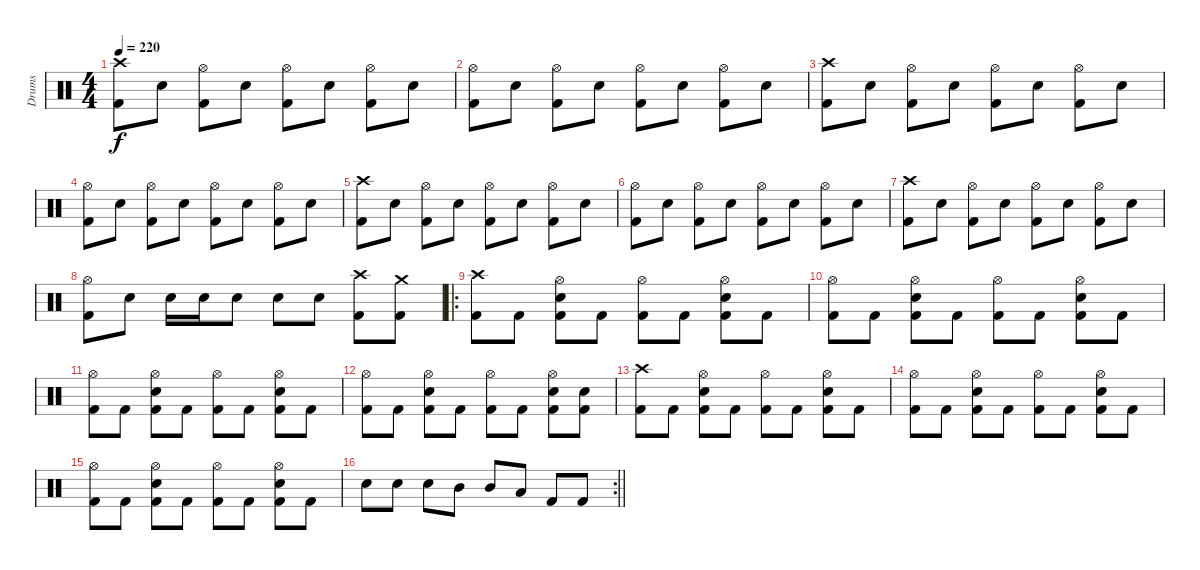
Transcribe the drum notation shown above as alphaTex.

\track ("Drums" "Drums") {instrument percussion}
\staff {score}
\articulation defaults
\ts (4 4)
\tempo 220
\clef neutral
\ks c
("Kick (hit) 2" "Crash high (hit)").8{dy f} "Electric Snare (hit)".8 ("Kick (hit) 2" "Hi-Hat (open)").8 "Electric Snare (hit)".8 ("Kick (hit) 2" "Hi-Hat (open)").8 "Electric Snare (hit)".8 ("Kick (hit) 2" "Hi-Hat (open)").8 "Electric Snare (hit)".8 |
("Kick (hit) 2" "Hi-Hat (open)").8 "Electric Snare (hit)".8 ("Kick (hit) 2" "Hi-Hat (open)").8 "Electric Snare (hit)".8 ("Kick (hit) 2" "Hi-Hat (open)").8 "Electric Snare (hit)".8 ("Kick (hit) 2" "Hi-Hat (open)").8 "Electric Snare (hit)".8 |
("Kick (hit) 2" "Crash high (hit)").8 "Electric Snare (hit)".8 ("Kick (hit) 2" "Hi-Hat (open)").8 "Electric Snare (hit)".8 ("Kick (hit) 2" "Hi-Hat (open)").8 "Electric Snare (hit)".8 ("Kick (hit) 2" "Hi-Hat (open)").8 "Electric Snare (hit)".8 |
("Kick (hit) 2" "Hi-Hat (open)").8 "Electric Snare (hit)".8 ("Kick (hit) 2" "Hi-Hat (open)").8 "Electric Snare (hit)".8 ("Kick (hit) 2" "Hi-Hat (open)").8 "Electric Snare (hit)".8 ("Kick (hit) 2" "Hi-Hat (open)").8 "Electric Snare (hit)".8 |
("Kick (hit) 2" "Crash high (hit)").8 "Electric Snare (hit)".8 ("Kick (hit) 2" "Hi-Hat (open)").8 "Electric Snare (hit)".8 ("Kick (hit) 2" "Hi-Hat (open)").8 "Electric Snare (hit)".8 ("Kick (hit) 2" "Hi-Hat (open)").8 "Electric Snare (hit)".8 |
("Kick (hit) 2" "Hi-Hat (open)").8 "Electric Snare (hit)".8 ("Kick (hit) 2" "Hi-Hat (open)").8 "Electric Snare (hit)".8 ("Kick (hit) 2" "Hi-Hat (open)").8 "Electric Snare (hit)".8 ("Kick (hit) 2" "Hi-Hat (open)").8 "Electric Snare (hit)".8 |
("Kick (hit) 2" "Crash high (hit)").8 "Electric Snare (hit)".8 ("Kick (hit) 2" "Hi-Hat (open)").8 "Electric Snare (hit)".8 ("Kick (hit) 2" "Hi-Hat (open)").8 "Electric Snare (hit)".8 ("Kick (hit) 2" "Hi-Hat (open)").8 "Electric Snare (hit)".8 |
("Kick (hit) 2" "Hi-Hat (open)").8 "Electric Snare (hit)".8 "Electric Snare (hit)".16 "Electric Snare (hit)".16 "Electric Snare (hit)".8 "Electric Snare (hit)".8 "Electric Snare (hit)".8 ("Kick (hit) 2" "Crash high (hit)").8 ("Kick (hit) 2" "Crash medium (hit)").8 |
\ro
("Kick (hit) 2" "Crash high (hit)").8 "Kick (hit) 2".8 ("Kick (hit) 2" "Electric Snare (hit)" "Hi-Hat (open)").8 "Kick (hit) 2".8 ("Kick (hit) 2" "Hi-Hat (open)").8 "Kick (hit) 2".8 ("Kick (hit) 2" "Electric Snare (hit)" "Hi-Hat (open)").8 "Kick (hit) 2".8 |
("Kick (hit) 2" "Hi-Hat (open)").8 "Kick (hit) 2".8 ("Kick (hit) 2" "Electric Snare (hit)" "Hi-Hat (open)").8 "Kick (hit) 2".8 ("Kick (hit) 2" "Hi-Hat (open)").8 "Kick (hit) 2".8 ("Kick (hit) 2" "Electric Snare (hit)" "Hi-Hat (open)").8 "Kick (hit) 2".8 |
("Kick (hit) 2" "Hi-Hat (open)").8 "Kick (hit) 2".8 ("Kick (hit) 2" "Electric Snare (hit)" "Hi-Hat (open)").8 "Kick (hit) 2".8 ("Kick (hit) 2" "Hi-Hat (open)").8 "Kick (hit) 2".8 ("Kick (hit) 2" "Electric Snare (hit)" "Hi-Hat (open)").8 "Kick (hit) 2".8 |
("Kick (hit) 2" "Hi-Hat (open)").8 "Kick (hit) 2".8 ("Kick (hit) 2" "Electric Snare (hit)" "Hi-Hat (open)").8 "Kick (hit) 2".8 ("Kick (hit) 2" "Hi-Hat (open)").8 "Kick (hit) 2".8 ("Kick (hit) 2" "Electric Snare (hit)" "Hi-Hat (open)").8 ("Kick (hit) 2" "Electric Snare (hit)").8 |
("Kick (hit) 2" "Crash high (hit)").8 "Kick (hit) 2".8 ("Kick (hit) 2" "Electric Snare (hit)" "Hi-Hat (open)").8 "Kick (hit) 2".8 ("Kick (hit) 2" "Hi-Hat (open)").8 "Kick (hit) 2".8 ("Kick (hit) 2" "Electric Snare (hit)" "Hi-Hat (open)").8 "Kick (hit) 2".8 |
("Kick (hit) 2" "Hi-Hat (open)").8 "Kick (hit) 2".8 ("Kick (hit) 2" "Electric Snare (hit)" "Hi-Hat (open)").8 "Kick (hit) 2".8 ("Kick (hit) 2" "Hi-Hat (open)").8 "Kick (hit) 2".8 ("Kick (hit) 2" "Electric Snare (hit)" "Hi-Hat (open)").8 "Kick (hit) 2".8 |
("Kick (hit) 2" "Hi-Hat (open)").8 "Kick (hit) 2".8 ("Kick (hit) 2" "Electric Snare (hit)" "Hi-Hat (open)").8 "Kick (hit) 2".8 ("Kick (hit) 2" "Hi-Hat (open)").8 "Kick (hit) 2".8 ("Kick (hit) 2" "Electric Snare (hit)" "Hi-Hat (open)").8 "Kick (hit) 2".8 |
\rc 2
\barLineRight lightlight "Electric Snare (hit)".8 "Electric Snare (hit)".8 "Electric Snare (hit)".8 "Mid Tom (hit)".8 "Mid Tom (hit)".8 "Low Tom (hit)".8 "Kick (hit) 2".8 "Kick (hit) 2".8
